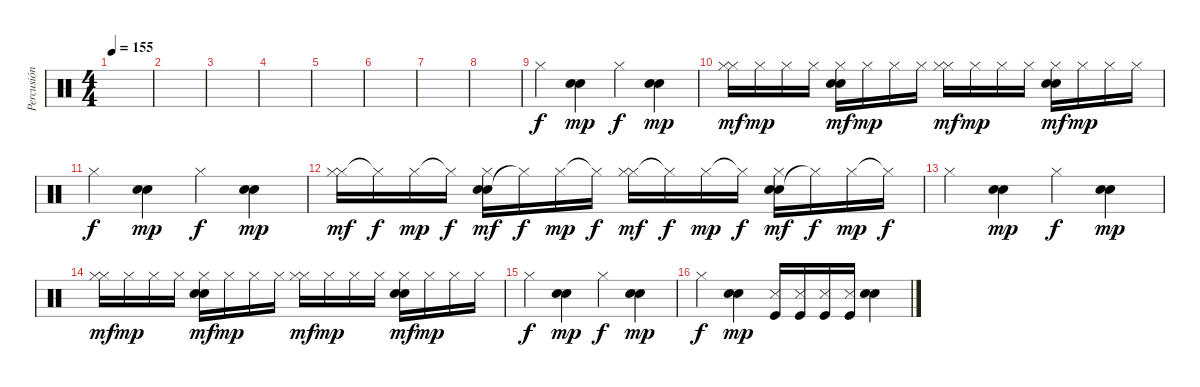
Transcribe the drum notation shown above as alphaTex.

\track ("Percusión" "Percusión") {instrument percussion}
\staff {score}
\articulation defaults
\ts (4 4)
\tempo 155
\clef neutral
\ks c
|
|
|
|
|
|
|
|
"Hi-Hat (closed)".4 ("Electric Snare (hit)" "Snare (hit) 2").4{dy mp} "Hi-Hat (closed)".4{dy f} ("Electric Snare (hit)" "Snare (hit) 2").4{dy mp} |
("Hi-Hat (closed)" "Hi-Hat (closed)").16{dy mf} "Hi-Hat (closed)".16{dy mp} "Hi-Hat (closed)".16 "Hi-Hat (closed)".16 ("Electric Snare (hit)" "Snare (hit) 2" "Hi-Hat (closed)").16{dy mf} "Hi-Hat (closed)".16{dy mp} "Hi-Hat (closed)".16 "Hi-Hat (closed)".16 ("Hi-Hat (closed)" "Hi-Hat (closed)").16{dy mf} "Hi-Hat (closed)".16{dy mp} "Hi-Hat (closed)".16 "Hi-Hat (closed)".16 ("Electric Snare (hit)" "Snare (hit) 2" "Hi-Hat (closed)").16{dy mf} "Hi-Hat (closed)".16{dy mp} "Hi-Hat (closed)".16 "Hi-Hat (closed)".16 |
"Hi-Hat (closed)".4{dy f} ("Electric Snare (hit)" "Snare (hit) 2").4{dy mp} "Hi-Hat (closed)".4{dy f} ("Electric Snare (hit)" "Snare (hit) 2").4{dy mp} |
("Hi-Hat (closed)" "Hi-Hat (closed)").16{dy mf} "Hi-Hat (closed)"{t}.16{dy f} "Hi-Hat (closed)".16{dy mp} "Hi-Hat (closed)"{t}.16{dy f} ("Electric Snare (hit)" "Snare (hit) 2" "Hi-Hat (closed)").16{dy mf} "Hi-Hat (closed)"{t}.16{dy f} "Hi-Hat (closed)".16{dy mp} "Hi-Hat (closed)"{t}.16{dy f} ("Hi-Hat (closed)" "Hi-Hat (closed)").16{dy mf} "Hi-Hat (closed)"{t}.16{dy f} "Hi-Hat (closed)".16{dy mp} "Hi-Hat (closed)"{t}.16{dy f} ("Electric Snare (hit)" "Snare (hit) 2" "Hi-Hat (closed)").16{dy mf} "Hi-Hat (closed)"{t}.16{dy f} "Hi-Hat (closed)".16{dy mp} "Hi-Hat (closed)"{t}.16{dy f} |
"Hi-Hat (closed)".4 ("Electric Snare (hit)" "Snare (hit) 2").4{dy mp} "Hi-Hat (closed)".4{dy f} ("Electric Snare (hit)" "Snare (hit) 2").4{dy mp} |
("Hi-Hat (closed)" "Hi-Hat (closed)").16{dy mf} "Hi-Hat (closed)".16{dy mp} "Hi-Hat (closed)".16 "Hi-Hat (closed)".16 ("Electric Snare (hit)" "Snare (hit) 2" "Hi-Hat (closed)").16{dy mf} "Hi-Hat (closed)".16{dy mp} "Hi-Hat (closed)".16 "Hi-Hat (closed)".16 ("Hi-Hat (closed)" "Hi-Hat (closed)").16{dy mf} "Hi-Hat (closed)".16{dy mp} "Hi-Hat (closed)".16 "Hi-Hat (closed)".16 ("Electric Snare (hit)" "Snare (hit) 2" "Hi-Hat (closed)").16{dy mf} "Hi-Hat (closed)".16{dy mp} "Hi-Hat (closed)".16 "Hi-Hat (closed)".16 |
"Hi-Hat (closed)".4{dy f} ("Electric Snare (hit)" "Snare (hit) 2").4{dy mp} "Hi-Hat (closed)".4{dy f} ("Electric Snare (hit)" "Snare (hit) 2").4{dy mp} |
"Hi-Hat (closed)".4{dy f} ("Electric Snare (hit)" "Snare (hit) 2").4{dy mp} ("Kick (hit)" "Snare (side stick) 3").16 ("Kick (hit)" "Snare (side stick) 3").16 ("Kick (hit)" "Snare (side stick) 3").16 ("Kick (hit)" "Snare (side stick) 3").16 ("Electric Snare (hit)" "Snare (hit) 2").4
